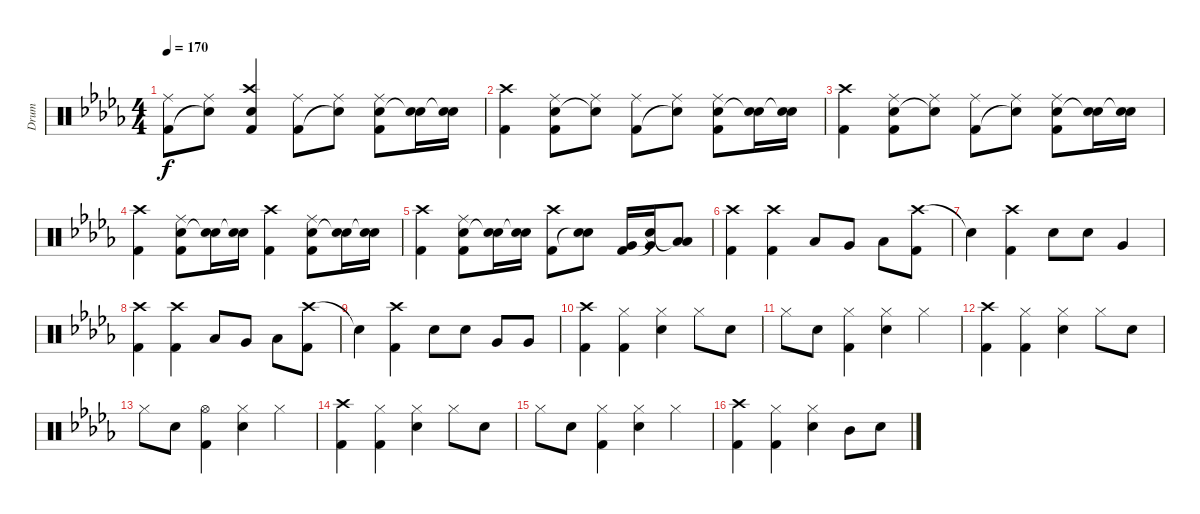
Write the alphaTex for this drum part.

\track ("Drum" "Drum") {instrument percussion}
\staff {score}
\articulation defaults
\ts (4 4)
\tempo 170
\clef neutral
\ks db
("Ride (middle)" "Kick (hit) 2").8{dy f} ("Ride (middle)" "Snare (hit)"{t}).8 ("Crash high (hit)" "Electric Snare (hit)" "Kick (hit) 2").4 ("Ride (middle)" "Kick (hit) 2").8 ("Ride (middle)" "Snare (hit)"{t}).8 ("Ride (middle)" "Electric Snare (hit)" "Kick (hit) 2").8 ("Electric Snare (hit)" "Snare (hit)"{t}).16 ("Electric Snare (hit)" "Snare (hit)"{t}).16 |
("Crash high (hit)" "Kick (hit) 2").4 ("Ride (middle)" "Electric Snare (hit)" "Kick (hit) 2").8 ("Ride (middle)" "Snare (hit)"{t}).8 ("Ride (middle)" "Kick (hit) 2").8 ("Ride (middle)" "Snare (hit)"{t}).8 ("Ride (middle)" "Electric Snare (hit)" "Kick (hit) 2").8 ("Electric Snare (hit)" "Snare (hit)"{t}).16 ("Electric Snare (hit)" "Snare (hit)"{t}).16 |
("Crash high (hit)" "Kick (hit) 2").4 ("Ride (middle)" "Electric Snare (hit)" "Kick (hit) 2").8 ("Ride (middle)" "Snare (hit)"{t}).8 ("Ride (middle)" "Kick (hit) 2").8 ("Ride (middle)" "Snare (hit)"{t}).8 ("Ride (middle)" "Electric Snare (hit)" "Kick (hit) 2").8 ("Electric Snare (hit)" "Snare (hit)"{t}).16 ("Electric Snare (hit)" "Snare (hit)"{t}).16 |
("Crash high (hit)" "Kick (hit) 2").4 ("Ride (middle)" "Electric Snare (hit)" "Kick (hit) 2").8 ("Electric Snare (hit)" "Snare (hit)"{t}).16 ("Electric Snare (hit)" "Snare (hit)"{t}).16 ("Crash high (hit)" "Kick (hit) 2").4 ("Ride (middle)" "Electric Snare (hit)" "Kick (hit) 2").8 ("Electric Snare (hit)" "Snare (hit)"{t}).16 ("Electric Snare (hit)" "Snare (hit)"{t}).16 |
("Crash high (hit)" "Kick (hit) 2").4 ("Ride (middle)" "Electric Snare (hit)" "Kick (hit) 2").8 ("Electric Snare (hit)" "Snare (hit)"{t}).16 ("Electric Snare (hit)" "Snare (hit)"{t}).16 ("Crash high (hit)" "Kick (hit) 2").8 ("Electric Snare (hit)" "Snare (hit)"{t}).8 ("Very Low Tom (hit)" "Kick (hit) 2").16 ("Very Low Tom (hit)" "Snare (hit)"{t}).16 ("Low Floor Tom (hit)" "Low Floor Tom (hit)"{t}).8 |
("Crash high (hit)" "Kick (hit) 2").4 ("Crash high (hit)" "Kick (hit) 2").4 "Low Tom (hit)".8 "Very Low Tom (hit)".8 "Low Floor Tom (hit)".8 ("Crash high (hit)" "Kick (hit) 2").8 |
"Snare (hit)"{t}.4 ("Crash high (hit)" "Kick (hit) 2").4 "Electric Snare (hit)".8 "Electric Snare (hit)".8 "Very Low Tom (hit)".4 |
("Crash high (hit)" "Kick (hit) 2").4 ("Crash high (hit)" "Kick (hit) 2").4 "Low Tom (hit)".8 "Very Low Tom (hit)".8 "Low Floor Tom (hit)".8 ("Crash high (hit)" "Kick (hit) 2").8 |
"Snare (hit)"{t}.4 ("Crash high (hit)" "Kick (hit) 2").4 "Electric Snare (hit)".8 "Electric Snare (hit)".8 "Very Low Tom (hit)".8 "Very Low Tom (hit)".8 |
("Crash high (hit)" "Kick (hit) 2").4 ("Hi-Hat (closed)" "Kick (hit) 2").4 ("Hi-Hat (closed)" "Electric Snare (hit)").4 "Hi-Hat (closed)".8 "Electric Snare (hit)".8 |
"Hi-Hat (closed)".8 "Electric Snare (hit)".8 ("Hi-Hat (closed)" "Kick (hit) 2").4 ("Hi-Hat (closed)" "Electric Snare (hit)").4 "Hi-Hat (closed)".4 |
("Crash high (hit)" "Kick (hit) 2").4 ("Hi-Hat (closed)" "Kick (hit) 2").4 ("Hi-Hat (closed)" "Electric Snare (hit)").4 "Hi-Hat (closed)".8 "Electric Snare (hit)".8 |
"Hi-Hat (closed)".8 "Electric Snare (hit)".8 ("Hi-Hat (open)" "Kick (hit) 2").4 ("Hi-Hat (closed)" "Electric Snare (hit)").4 "Hi-Hat (closed)".4 |
("Crash high (hit)" "Kick (hit) 2").4 ("Hi-Hat (closed)" "Kick (hit) 2").4 ("Hi-Hat (closed)" "Electric Snare (hit)").4 "Hi-Hat (closed)".8 "Electric Snare (hit)".8 |
"Hi-Hat (closed)".8 "Electric Snare (hit)".8 ("Hi-Hat (closed)" "Kick (hit) 2").4 ("Hi-Hat (closed)" "Electric Snare (hit)").4 "Hi-Hat (closed)".4 |
("Crash high (hit)" "Kick (hit) 2").4 ("Hi-Hat (closed)" "Kick (hit) 2").4 ("Hi-Hat (closed)" "Electric Snare (hit)").4 "Mid Tom (hit)".8 "Electric Snare (hit)".8
